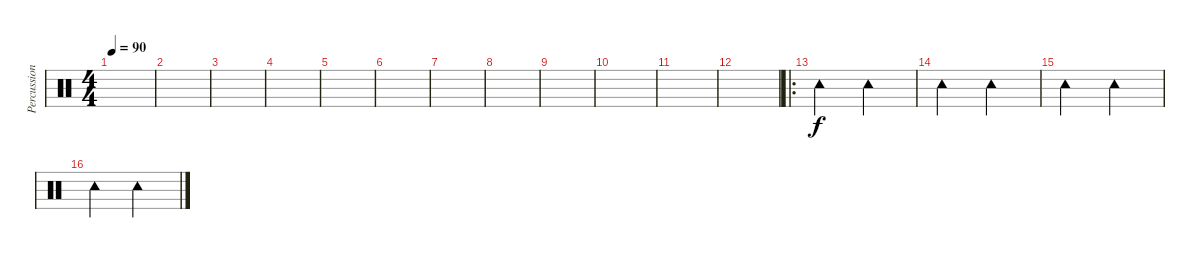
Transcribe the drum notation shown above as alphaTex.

\track ("Percussions" "Percussion") {instrument percussion}
\staff {score}
\articulation defaults
\ts (4 4)
\tempo 90
\clef neutral
\ks c
|
|
|
|
|
|
|
|
|
|
|
|
\ro "Tambourine (hit)".2 "Tambourine (hit)".2
|
"Tambourine (hit)".2 "Tambourine (hit)".2 |
"Tambourine (hit)".2 "Tambourine (hit)".2 |
"Tambourine (hit)".2 "Tambourine (hit)".2
